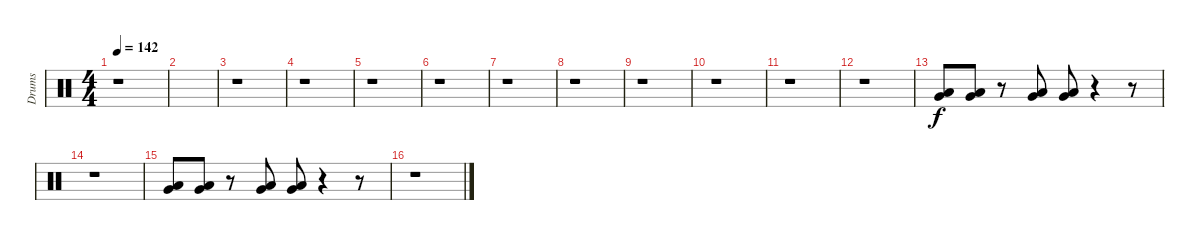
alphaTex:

\track ("Drums" "Drums") {instrument percussion}
\staff {score}
\articulation defaults
\ts (4 4)
\tempo 142
\clef neutral
\ks c
r.1{dy f} |
|
r.1 |
r.1 |
r.1 |
r.1 |
r.1 |
r.1 |
r.1 |
r.1 |
r.1 |
r.1 |
("Very Low Tom (hit)" "Low Tom (hit)").8 ("Very Low Tom (hit)" "Low Tom (hit)").8 r.8 ("Very Low Tom (hit)" "Low Tom (hit)").8 ("Very Low Tom (hit)" "Low Tom (hit)").8 r.4 r.8 |
r.1 |
("Very Low Tom (hit)" "Low Tom (hit)").8 ("Very Low Tom (hit)" "Low Tom (hit)").8 r.8 ("Very Low Tom (hit)" "Low Tom (hit)").8 ("Very Low Tom (hit)" "Low Tom (hit)").8 r.4 r.8 |
r.1
